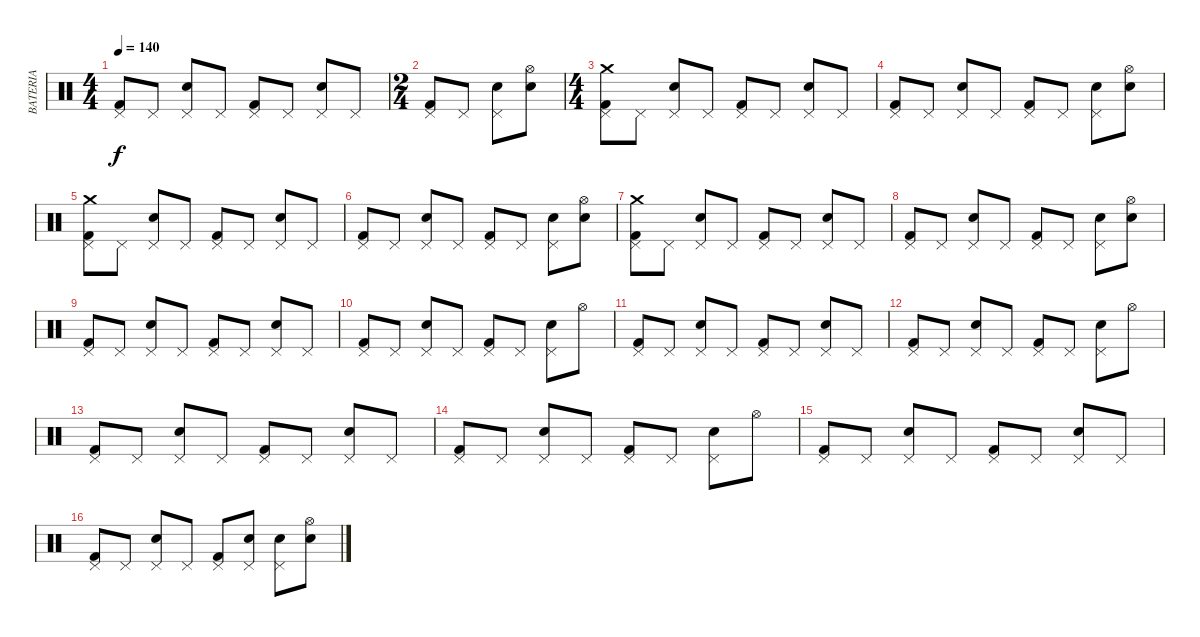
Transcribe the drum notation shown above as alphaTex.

\track ("BATERIA" "BATERIA") {instrument percussion}
\staff {score}
\articulation defaults
\ts (4 4)
\tempo 140
\clef neutral
\ks c
("Kick (hit) 2" "Pedal Hi-Hat (hit)").8{dy f} "Pedal Hi-Hat (hit)".8 ("Snare (hit) 2" "Pedal Hi-Hat (hit)").8 "Pedal Hi-Hat (hit)".8 ("Kick (hit) 2" "Pedal Hi-Hat (hit)").8 "Pedal Hi-Hat (hit)".8 ("Snare (hit) 2" "Pedal Hi-Hat (hit)").8 "Pedal Hi-Hat (hit)".8 |
\ts (2 4)
("Kick (hit) 2" "Pedal Hi-Hat (hit)").8 "Pedal Hi-Hat (hit)".8 ("Snare (hit) 2" "Pedal Hi-Hat (hit)").8 ("Snare (hit) 2" "Hi-Hat (open)").8 |
\ts (4 4)
("Kick (hit) 2" "Pedal Hi-Hat (hit)" "Crash medium (hit)").8 "Pedal Hi-Hat (hit)".8 ("Snare (hit) 2" "Pedal Hi-Hat (hit)").8 "Pedal Hi-Hat (hit)".8 ("Kick (hit) 2" "Pedal Hi-Hat (hit)").8 "Pedal Hi-Hat (hit)".8 ("Snare (hit) 2" "Pedal Hi-Hat (hit)").8 "Pedal Hi-Hat (hit)".8 |
("Kick (hit) 2" "Pedal Hi-Hat (hit)").8 "Pedal Hi-Hat (hit)".8 ("Snare (hit) 2" "Pedal Hi-Hat (hit)").8 "Pedal Hi-Hat (hit)".8 ("Kick (hit) 2" "Pedal Hi-Hat (hit)").8 "Pedal Hi-Hat (hit)".8 ("Snare (hit) 2" "Pedal Hi-Hat (hit)").8 ("Snare (hit) 2" "Hi-Hat (open)").8 |
("Kick (hit) 2" "Pedal Hi-Hat (hit)" "Crash medium (hit)").8 "Pedal Hi-Hat (hit)".8 ("Snare (hit) 2" "Pedal Hi-Hat (hit)").8 "Pedal Hi-Hat (hit)".8 ("Kick (hit) 2" "Pedal Hi-Hat (hit)").8 "Pedal Hi-Hat (hit)".8 ("Snare (hit) 2" "Pedal Hi-Hat (hit)").8 "Pedal Hi-Hat (hit)".8 |
("Kick (hit) 2" "Pedal Hi-Hat (hit)").8 "Pedal Hi-Hat (hit)".8 ("Snare (hit) 2" "Pedal Hi-Hat (hit)").8 "Pedal Hi-Hat (hit)".8 ("Kick (hit) 2" "Pedal Hi-Hat (hit)").8 "Pedal Hi-Hat (hit)".8 ("Snare (hit) 2" "Pedal Hi-Hat (hit)").8 ("Snare (hit) 2" "Hi-Hat (open)").8 |
("Kick (hit) 2" "Pedal Hi-Hat (hit)" "Crash medium (hit)").8 "Pedal Hi-Hat (hit)".8 ("Snare (hit) 2" "Pedal Hi-Hat (hit)").8 "Pedal Hi-Hat (hit)".8 ("Kick (hit) 2" "Pedal Hi-Hat (hit)").8 "Pedal Hi-Hat (hit)".8 ("Snare (hit) 2" "Pedal Hi-Hat (hit)").8 "Pedal Hi-Hat (hit)".8 |
("Kick (hit) 2" "Pedal Hi-Hat (hit)").8 "Pedal Hi-Hat (hit)".8 ("Snare (hit) 2" "Pedal Hi-Hat (hit)").8 "Pedal Hi-Hat (hit)".8 ("Kick (hit) 2" "Pedal Hi-Hat (hit)").8 "Pedal Hi-Hat (hit)".8 ("Snare (hit) 2" "Pedal Hi-Hat (hit)").8 ("Snare (hit) 2" "Hi-Hat (open)").8 |
("Kick (hit) 2" "Pedal Hi-Hat (hit)").8 "Pedal Hi-Hat (hit)".8 ("Snare (hit) 2" "Pedal Hi-Hat (hit)").8 "Pedal Hi-Hat (hit)".8 ("Kick (hit) 2" "Pedal Hi-Hat (hit)").8 "Pedal Hi-Hat (hit)".8 ("Snare (hit) 2" "Pedal Hi-Hat (hit)").8 "Pedal Hi-Hat (hit)".8 |
("Kick (hit) 2" "Pedal Hi-Hat (hit)").8 "Pedal Hi-Hat (hit)".8 ("Snare (hit) 2" "Pedal Hi-Hat (hit)").8 "Pedal Hi-Hat (hit)".8 ("Kick (hit) 2" "Pedal Hi-Hat (hit)").8 "Pedal Hi-Hat (hit)".8 ("Snare (hit) 2" "Pedal Hi-Hat (hit)").8 "Hi-Hat (open)".8 |
("Kick (hit) 2" "Pedal Hi-Hat (hit)").8 "Pedal Hi-Hat (hit)".8 ("Snare (hit) 2" "Pedal Hi-Hat (hit)").8 "Pedal Hi-Hat (hit)".8 ("Kick (hit) 2" "Pedal Hi-Hat (hit)").8 "Pedal Hi-Hat (hit)".8 ("Snare (hit) 2" "Pedal Hi-Hat (hit)").8 "Pedal Hi-Hat (hit)".8 |
("Kick (hit) 2" "Pedal Hi-Hat (hit)").8 "Pedal Hi-Hat (hit)".8 ("Snare (hit) 2" "Pedal Hi-Hat (hit)").8 "Pedal Hi-Hat (hit)".8 ("Kick (hit) 2" "Pedal Hi-Hat (hit)").8 "Pedal Hi-Hat (hit)".8 ("Snare (hit) 2" "Pedal Hi-Hat (hit)").8 "Hi-Hat (open)".8 |
("Kick (hit) 2" "Pedal Hi-Hat (hit)").8 "Pedal Hi-Hat (hit)".8 ("Snare (hit) 2" "Pedal Hi-Hat (hit)").8 "Pedal Hi-Hat (hit)".8 ("Kick (hit) 2" "Pedal Hi-Hat (hit)").8 "Pedal Hi-Hat (hit)".8 ("Snare (hit) 2" "Pedal Hi-Hat (hit)").8 "Pedal Hi-Hat (hit)".8 |
("Kick (hit) 2" "Pedal Hi-Hat (hit)").8 "Pedal Hi-Hat (hit)".8 ("Snare (hit) 2" "Pedal Hi-Hat (hit)").8 "Pedal Hi-Hat (hit)".8 ("Kick (hit) 2" "Pedal Hi-Hat (hit)").8 "Pedal Hi-Hat (hit)".8 ("Snare (hit) 2" "Pedal Hi-Hat (hit)").8 "Hi-Hat (open)".8 |
("Kick (hit) 2" "Pedal Hi-Hat (hit)").8 "Pedal Hi-Hat (hit)".8 ("Snare (hit) 2" "Pedal Hi-Hat (hit)").8 "Pedal Hi-Hat (hit)".8 ("Kick (hit) 2" "Pedal Hi-Hat (hit)").8 "Pedal Hi-Hat (hit)".8 ("Snare (hit) 2" "Pedal Hi-Hat (hit)").8 "Pedal Hi-Hat (hit)".8 |
("Kick (hit) 2" "Pedal Hi-Hat (hit)").8 "Pedal Hi-Hat (hit)".8 ("Snare (hit) 2" "Pedal Hi-Hat (hit)").8 "Pedal Hi-Hat (hit)".8 ("Kick (hit) 2" "Pedal Hi-Hat (hit)").8 ("Snare (hit) 2" "Pedal Hi-Hat (hit)").8 ("Snare (hit) 2" "Pedal Hi-Hat (hit)").8 ("Snare (hit) 2" "Hi-Hat (open)").8
